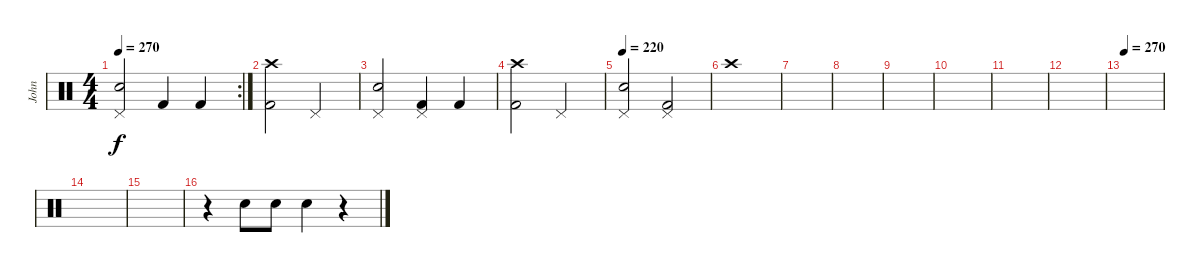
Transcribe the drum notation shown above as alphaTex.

\track ("John" "John") {instrument percussion}
\staff {score}
\articulation defaults
\rc 2
\ts (4 4)
\tempo 270
\clef neutral
\ks c
("Pedal Hi-Hat (hit)" "Electric Snare (hit)").2{dy f} "Kick (hit) 2".4 "Kick (hit) 2".4 |
("Crash high (hit)" "Kick (hit) 2").2 "Pedal Hi-Hat (hit)".2 |
("Pedal Hi-Hat (hit)" "Electric Snare (hit)").2 ("Pedal Hi-Hat (hit)" "Kick (hit) 2").4 "Kick (hit) 2".4 |
("Crash high (hit)" "Kick (hit) 2").2 "Pedal Hi-Hat (hit)".2 |
\tempo 220
("Pedal Hi-Hat (hit)" "Electric Snare (hit)").2 ("Pedal Hi-Hat (hit)" "Kick (hit) 2").2 |
"Crash high (hit)".1 |
|
|
|
|
|
|
\tempo 270
|
|
|
r.4 "Electric Snare (hit)".8 "Electric Snare (hit)".8 "Electric Snare (hit)".4 r.4
